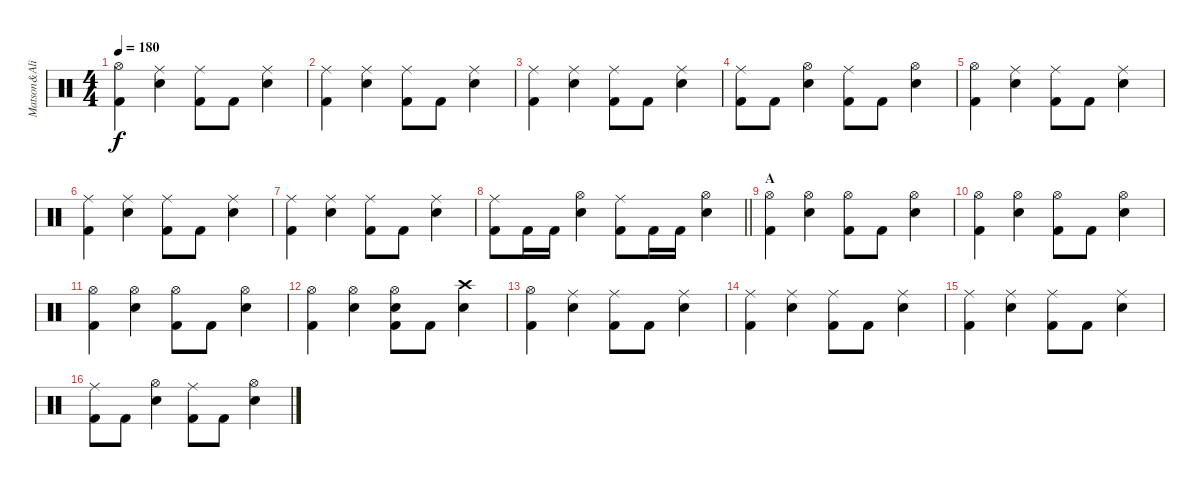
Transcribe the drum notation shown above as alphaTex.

\track ("Matson&Ali" "Matson&Ali") {instrument percussion}
\staff {score}
\articulation defaults
\ts (4 4)
\tempo 180
\clef neutral
\ks c
("Hi-Hat (open)" "Kick (hit) 2").4{dy f} ("Ride (middle)" "Snare (hit) 2").4 ("Ride (middle)" "Kick (hit) 2").8 "Kick (hit) 2".8 ("Ride (middle)" "Snare (hit) 2").4 |
("Ride (middle)" "Kick (hit) 2").4 ("Ride (middle)" "Snare (hit) 2").4 ("Ride (middle)" "Kick (hit) 2").8 "Kick (hit) 2".8 ("Ride (middle)" "Snare (hit) 2").4 |
("Ride (middle)" "Kick (hit) 2").4 ("Ride (middle)" "Snare (hit) 2").4 ("Ride (middle)" "Kick (hit) 2").8 "Kick (hit) 2".8 ("Ride (middle)" "Snare (hit) 2").4 |
("Ride (middle)" "Kick (hit) 2").8 "Kick (hit) 2".8 ("Hi-Hat (open)" "Snare (hit) 2").4 ("Ride (middle)" "Kick (hit) 2").8 "Kick (hit) 2".8 ("Hi-Hat (open)" "Snare (hit) 2").4 |
("Hi-Hat (open)" "Kick (hit) 2").4 ("Ride (middle)" "Snare (hit) 2").4 ("Ride (middle)" "Kick (hit) 2").8 "Kick (hit) 2".8 ("Ride (middle)" "Snare (hit) 2").4 |
("Ride (middle)" "Kick (hit) 2").4 ("Ride (middle)" "Snare (hit) 2").4 ("Ride (middle)" "Kick (hit) 2").8 "Kick (hit) 2".8 ("Ride (middle)" "Snare (hit) 2").4 |
("Ride (middle)" "Kick (hit) 2").4 ("Ride (middle)" "Snare (hit) 2").4 ("Ride (middle)" "Kick (hit) 2").8 "Kick (hit) 2".8 ("Ride (middle)" "Snare (hit) 2").4 |
\barLineRight lightlight
("Ride (middle)" "Kick (hit) 2").8 "Kick (hit) 2".16 "Kick (hit) 2".16 ("Hi-Hat (open)" "Snare (hit) 2").4 ("Ride (middle)" "Kick (hit) 2").8 "Kick (hit) 2".16 "Kick (hit) 2".16 ("Hi-Hat (open)" "Snare (hit) 2").4 |
\section ("" "A")
("Hi-Hat (open)" "Kick (hit) 2").4 ("Hi-Hat (open)" "Snare (hit) 2").4 ("Hi-Hat (open)" "Kick (hit) 2").8 "Kick (hit) 2".8 ("Hi-Hat (open)" "Snare (hit) 2").4 |
("Hi-Hat (open)" "Kick (hit) 2").4 ("Hi-Hat (open)" "Snare (hit) 2").4 ("Hi-Hat (open)" "Kick (hit) 2").8 "Kick (hit) 2".8 ("Hi-Hat (open)" "Snare (hit) 2").4 |
("Hi-Hat (open)" "Kick (hit) 2").4 ("Hi-Hat (open)" "Snare (hit) 2").4 ("Hi-Hat (open)" "Kick (hit) 2").8 "Kick (hit) 2".8 ("Hi-Hat (open)" "Snare (hit) 2").4 |
("Hi-Hat (open)" "Kick (hit) 2").4 ("Hi-Hat (open)" "Snare (hit) 2").4 ("Hi-Hat (open)" "Snare (hit) 2" "Kick (hit) 2").8 "Kick (hit) 2".8 ("Crash high (hit)" "Snare (hit) 2").4 |
("Hi-Hat (open)" "Kick (hit) 2").4 ("Ride (middle)" "Snare (hit) 2").4 ("Ride (middle)" "Kick (hit) 2").8 "Kick (hit) 2".8 ("Ride (middle)" "Snare (hit) 2").4 |
("Ride (middle)" "Kick (hit) 2").4 ("Ride (middle)" "Snare (hit) 2").4 ("Ride (middle)" "Kick (hit) 2").8 "Kick (hit) 2".8 ("Ride (middle)" "Snare (hit) 2").4 |
("Ride (middle)" "Kick (hit) 2").4 ("Ride (middle)" "Snare (hit) 2").4 ("Ride (middle)" "Kick (hit) 2").8 "Kick (hit) 2".8 ("Ride (middle)" "Snare (hit) 2").4 |
("Ride (middle)" "Kick (hit) 2").8 "Kick (hit) 2".8 ("Hi-Hat (open)" "Snare (hit) 2").4 ("Ride (middle)" "Kick (hit) 2").8 "Kick (hit) 2".8 ("Hi-Hat (open)" "Snare (hit) 2").4
